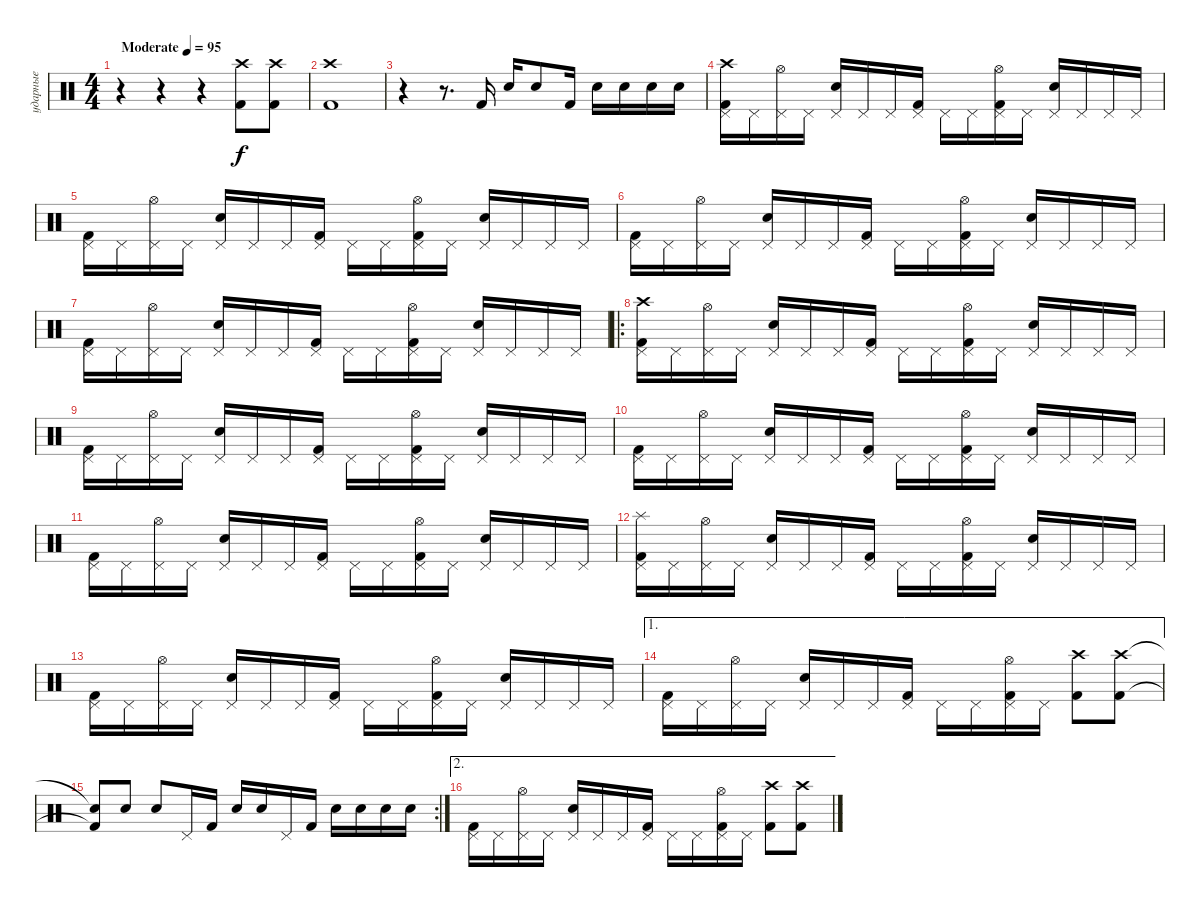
\track ("ударные" "ударные") {instrument percussion}
\staff {score}
\articulation defaults
\ts (4 4)
\tempo (95 "Moderate")
\clef neutral
\ks c
r.4{dy f} r.4 r.4 ("Kick (hit) 2" "Crash high (hit)").8 ("Kick (hit) 2" "Crash high (hit)").8 |
("Kick (hit) 2" "Crash high (hit)").1 |
r.4 r.8{d} "Kick (hit) 2".16 "Snare (hit) 2".16 "Snare (hit) 2".8 "Kick (hit) 2".16 "Snare (hit) 2".16 "Snare (hit) 2".16 "Snare (hit) 2".16 "Snare (hit) 2".16 |
("Kick (hit) 2" "Crash high (hit)" "Pedal Hi-Hat (hit)").16 "Pedal Hi-Hat (hit)".16 ("Pedal Hi-Hat (hit)" "Hi-Hat (open)").16 "Pedal Hi-Hat (hit)".16 ("Snare (hit) 2" "Pedal Hi-Hat (hit)").16 "Pedal Hi-Hat (hit)".16 "Pedal Hi-Hat (hit)".16 ("Kick (hit) 2" "Pedal Hi-Hat (hit)").16 "Pedal Hi-Hat (hit)".16 "Pedal Hi-Hat (hit)".16 ("Kick (hit) 2" "Pedal Hi-Hat (hit)" "Hi-Hat (open)").16 "Pedal Hi-Hat (hit)".16 ("Snare (hit) 2" "Pedal Hi-Hat (hit)").16 "Pedal Hi-Hat (hit)".16 "Pedal Hi-Hat (hit)".16 "Pedal Hi-Hat (hit)".16 |
("Kick (hit) 2" "Pedal Hi-Hat (hit)").16 "Pedal Hi-Hat (hit)".16 ("Pedal Hi-Hat (hit)" "Hi-Hat (open)").16 "Pedal Hi-Hat (hit)".16 ("Snare (hit) 2" "Pedal Hi-Hat (hit)").16 "Pedal Hi-Hat (hit)".16 "Pedal Hi-Hat (hit)".16 ("Kick (hit) 2" "Pedal Hi-Hat (hit)").16 "Pedal Hi-Hat (hit)".16 "Pedal Hi-Hat (hit)".16 ("Kick (hit) 2" "Pedal Hi-Hat (hit)" "Hi-Hat (open)").16 "Pedal Hi-Hat (hit)".16 ("Snare (hit) 2" "Pedal Hi-Hat (hit)").16 "Pedal Hi-Hat (hit)".16 "Pedal Hi-Hat (hit)".16 "Pedal Hi-Hat (hit)".16 |
("Kick (hit) 2" "Pedal Hi-Hat (hit)").16 "Pedal Hi-Hat (hit)".16 ("Pedal Hi-Hat (hit)" "Hi-Hat (open)").16 "Pedal Hi-Hat (hit)".16 ("Snare (hit) 2" "Pedal Hi-Hat (hit)").16 "Pedal Hi-Hat (hit)".16 "Pedal Hi-Hat (hit)".16 ("Kick (hit) 2" "Pedal Hi-Hat (hit)").16 "Pedal Hi-Hat (hit)".16 "Pedal Hi-Hat (hit)".16 ("Kick (hit) 2" "Pedal Hi-Hat (hit)" "Hi-Hat (open)").16 "Pedal Hi-Hat (hit)".16 ("Snare (hit) 2" "Pedal Hi-Hat (hit)").16 "Pedal Hi-Hat (hit)".16 "Pedal Hi-Hat (hit)".16 "Pedal Hi-Hat (hit)".16 |
("Kick (hit) 2" "Pedal Hi-Hat (hit)").16 "Pedal Hi-Hat (hit)".16 ("Pedal Hi-Hat (hit)" "Hi-Hat (open)").16 "Pedal Hi-Hat (hit)".16 ("Snare (hit) 2" "Pedal Hi-Hat (hit)").16 "Pedal Hi-Hat (hit)".16 "Pedal Hi-Hat (hit)".16 ("Kick (hit) 2" "Pedal Hi-Hat (hit)").16 "Pedal Hi-Hat (hit)".16 "Pedal Hi-Hat (hit)".16 ("Kick (hit) 2" "Pedal Hi-Hat (hit)" "Hi-Hat (open)").16 "Pedal Hi-Hat (hit)".16 ("Snare (hit) 2" "Pedal Hi-Hat (hit)").16 "Pedal Hi-Hat (hit)".16 "Pedal Hi-Hat (hit)".16 "Pedal Hi-Hat (hit)".16 |
\ro
("Kick (hit) 2" "Crash high (hit)" "Pedal Hi-Hat (hit)").16 "Pedal Hi-Hat (hit)".16 ("Pedal Hi-Hat (hit)" "Hi-Hat (open)").16 "Pedal Hi-Hat (hit)".16 ("Snare (hit) 2" "Pedal Hi-Hat (hit)").16 "Pedal Hi-Hat (hit)".16 "Pedal Hi-Hat (hit)".16 ("Kick (hit) 2" "Pedal Hi-Hat (hit)").16 "Pedal Hi-Hat (hit)".16 "Pedal Hi-Hat (hit)".16 ("Kick (hit) 2" "Pedal Hi-Hat (hit)" "Hi-Hat (open)").16 "Pedal Hi-Hat (hit)".16 ("Snare (hit) 2" "Pedal Hi-Hat (hit)").16 "Pedal Hi-Hat (hit)".16 "Pedal Hi-Hat (hit)".16 "Pedal Hi-Hat (hit)".16 |
("Kick (hit) 2" "Pedal Hi-Hat (hit)").16 "Pedal Hi-Hat (hit)".16 ("Pedal Hi-Hat (hit)" "Hi-Hat (open)").16 "Pedal Hi-Hat (hit)".16 ("Snare (hit) 2" "Pedal Hi-Hat (hit)").16 "Pedal Hi-Hat (hit)".16 "Pedal Hi-Hat (hit)".16 ("Kick (hit) 2" "Pedal Hi-Hat (hit)").16 "Pedal Hi-Hat (hit)".16 "Pedal Hi-Hat (hit)".16 ("Kick (hit) 2" "Pedal Hi-Hat (hit)" "Hi-Hat (open)").16 "Pedal Hi-Hat (hit)".16 ("Snare (hit) 2" "Pedal Hi-Hat (hit)").16 "Pedal Hi-Hat (hit)".16 "Pedal Hi-Hat (hit)".16 "Pedal Hi-Hat (hit)".16 |
("Kick (hit) 2" "Pedal Hi-Hat (hit)").16 "Pedal Hi-Hat (hit)".16 ("Pedal Hi-Hat (hit)" "Hi-Hat (open)").16 "Pedal Hi-Hat (hit)".16 ("Snare (hit) 2" "Pedal Hi-Hat (hit)").16 "Pedal Hi-Hat (hit)".16 "Pedal Hi-Hat (hit)".16 ("Kick (hit) 2" "Pedal Hi-Hat (hit)").16 "Pedal Hi-Hat (hit)".16 "Pedal Hi-Hat (hit)".16 ("Kick (hit) 2" "Pedal Hi-Hat (hit)" "Hi-Hat (open)").16 "Pedal Hi-Hat (hit)".16 ("Snare (hit) 2" "Pedal Hi-Hat (hit)").16 "Pedal Hi-Hat (hit)".16 "Pedal Hi-Hat (hit)".16 "Pedal Hi-Hat (hit)".16 |
("Kick (hit) 2" "Pedal Hi-Hat (hit)").16 "Pedal Hi-Hat (hit)".16 ("Pedal Hi-Hat (hit)" "Hi-Hat (open)").16 "Pedal Hi-Hat (hit)".16 ("Snare (hit) 2" "Pedal Hi-Hat (hit)").16 "Pedal Hi-Hat (hit)".16 "Pedal Hi-Hat (hit)".16 ("Kick (hit) 2" "Pedal Hi-Hat (hit)").16 "Pedal Hi-Hat (hit)".16 "Pedal Hi-Hat (hit)".16 ("Kick (hit) 2" "Pedal Hi-Hat (hit)" "Hi-Hat (open)").16 "Pedal Hi-Hat (hit)".16 ("Snare (hit) 2" "Pedal Hi-Hat (hit)").16 "Pedal Hi-Hat (hit)".16 "Pedal Hi-Hat (hit)".16 "Pedal Hi-Hat (hit)".16 |
("Kick (hit) 2" "Splash (hit)" "Pedal Hi-Hat (hit)").16 "Pedal Hi-Hat (hit)".16 ("Pedal Hi-Hat (hit)" "Hi-Hat (open)").16 "Pedal Hi-Hat (hit)".16 ("Snare (hit) 2" "Pedal Hi-Hat (hit)").16 "Pedal Hi-Hat (hit)".16 "Pedal Hi-Hat (hit)".16 ("Kick (hit) 2" "Pedal Hi-Hat (hit)").16 "Pedal Hi-Hat (hit)".16 "Pedal Hi-Hat (hit)".16 ("Kick (hit) 2" "Pedal Hi-Hat (hit)" "Hi-Hat (open)").16 "Pedal Hi-Hat (hit)".16 ("Snare (hit) 2" "Pedal Hi-Hat (hit)").16 "Pedal Hi-Hat (hit)".16 "Pedal Hi-Hat (hit)".16 "Pedal Hi-Hat (hit)".16 |
("Kick (hit) 2" "Pedal Hi-Hat (hit)").16 "Pedal Hi-Hat (hit)".16 ("Pedal Hi-Hat (hit)" "Hi-Hat (open)").16 "Pedal Hi-Hat (hit)".16 ("Snare (hit) 2" "Pedal Hi-Hat (hit)").16 "Pedal Hi-Hat (hit)".16 "Pedal Hi-Hat (hit)".16 ("Kick (hit) 2" "Pedal Hi-Hat (hit)").16 "Pedal Hi-Hat (hit)".16 "Pedal Hi-Hat (hit)".16 ("Kick (hit) 2" "Pedal Hi-Hat (hit)" "Hi-Hat (open)").16 "Pedal Hi-Hat (hit)".16 ("Snare (hit) 2" "Pedal Hi-Hat (hit)").16 "Pedal Hi-Hat (hit)".16 "Pedal Hi-Hat (hit)".16 "Pedal Hi-Hat (hit)".16 |
\ae 1
("Kick (hit) 2" "Pedal Hi-Hat (hit)").16 "Pedal Hi-Hat (hit)".16 ("Pedal Hi-Hat (hit)" "Hi-Hat (open)").16 "Pedal Hi-Hat (hit)".16 ("Snare (hit) 2" "Pedal Hi-Hat (hit)").16 "Pedal Hi-Hat (hit)".16 "Pedal Hi-Hat (hit)".16 ("Kick (hit) 2" "Pedal Hi-Hat (hit)").16 "Pedal Hi-Hat (hit)".16 "Pedal Hi-Hat (hit)".16 ("Kick (hit) 2" "Pedal Hi-Hat (hit)" "Hi-Hat (open)").16 "Pedal Hi-Hat (hit)".16 ("Kick (hit) 2" "Crash high (hit)").8 ("Kick (hit) 2" "Crash high (hit)").8 |
\rc 2
("Kick (hit) 2"{t} "Snare (hit)"{t}).8 "Snare (hit) 2".8 "Snare (hit) 2".8 "Pedal Hi-Hat (hit)".16 "Kick (hit) 2".16 "Snare (hit) 2".16 "Snare (hit) 2".16 "Pedal Hi-Hat (hit)".16 "Kick (hit) 2".16 "Snare (hit) 2".16 "Snare (hit) 2".16 "Snare (hit) 2".16 "Snare (hit) 2".16 |
\ae 2
("Kick (hit) 2" "Pedal Hi-Hat (hit)").16 "Pedal Hi-Hat (hit)".16 ("Pedal Hi-Hat (hit)" "Hi-Hat (open)").16 "Pedal Hi-Hat (hit)".16 ("Snare (hit) 2" "Pedal Hi-Hat (hit)").16 "Pedal Hi-Hat (hit)".16 "Pedal Hi-Hat (hit)".16 ("Kick (hit) 2" "Pedal Hi-Hat (hit)").16 "Pedal Hi-Hat (hit)".16 "Pedal Hi-Hat (hit)".16 ("Kick (hit) 2" "Pedal Hi-Hat (hit)" "Hi-Hat (open)").16 "Pedal Hi-Hat (hit)".16 ("Kick (hit) 2" "Crash high (hit)").8 ("Kick (hit) 2" "Crash high (hit)").8
